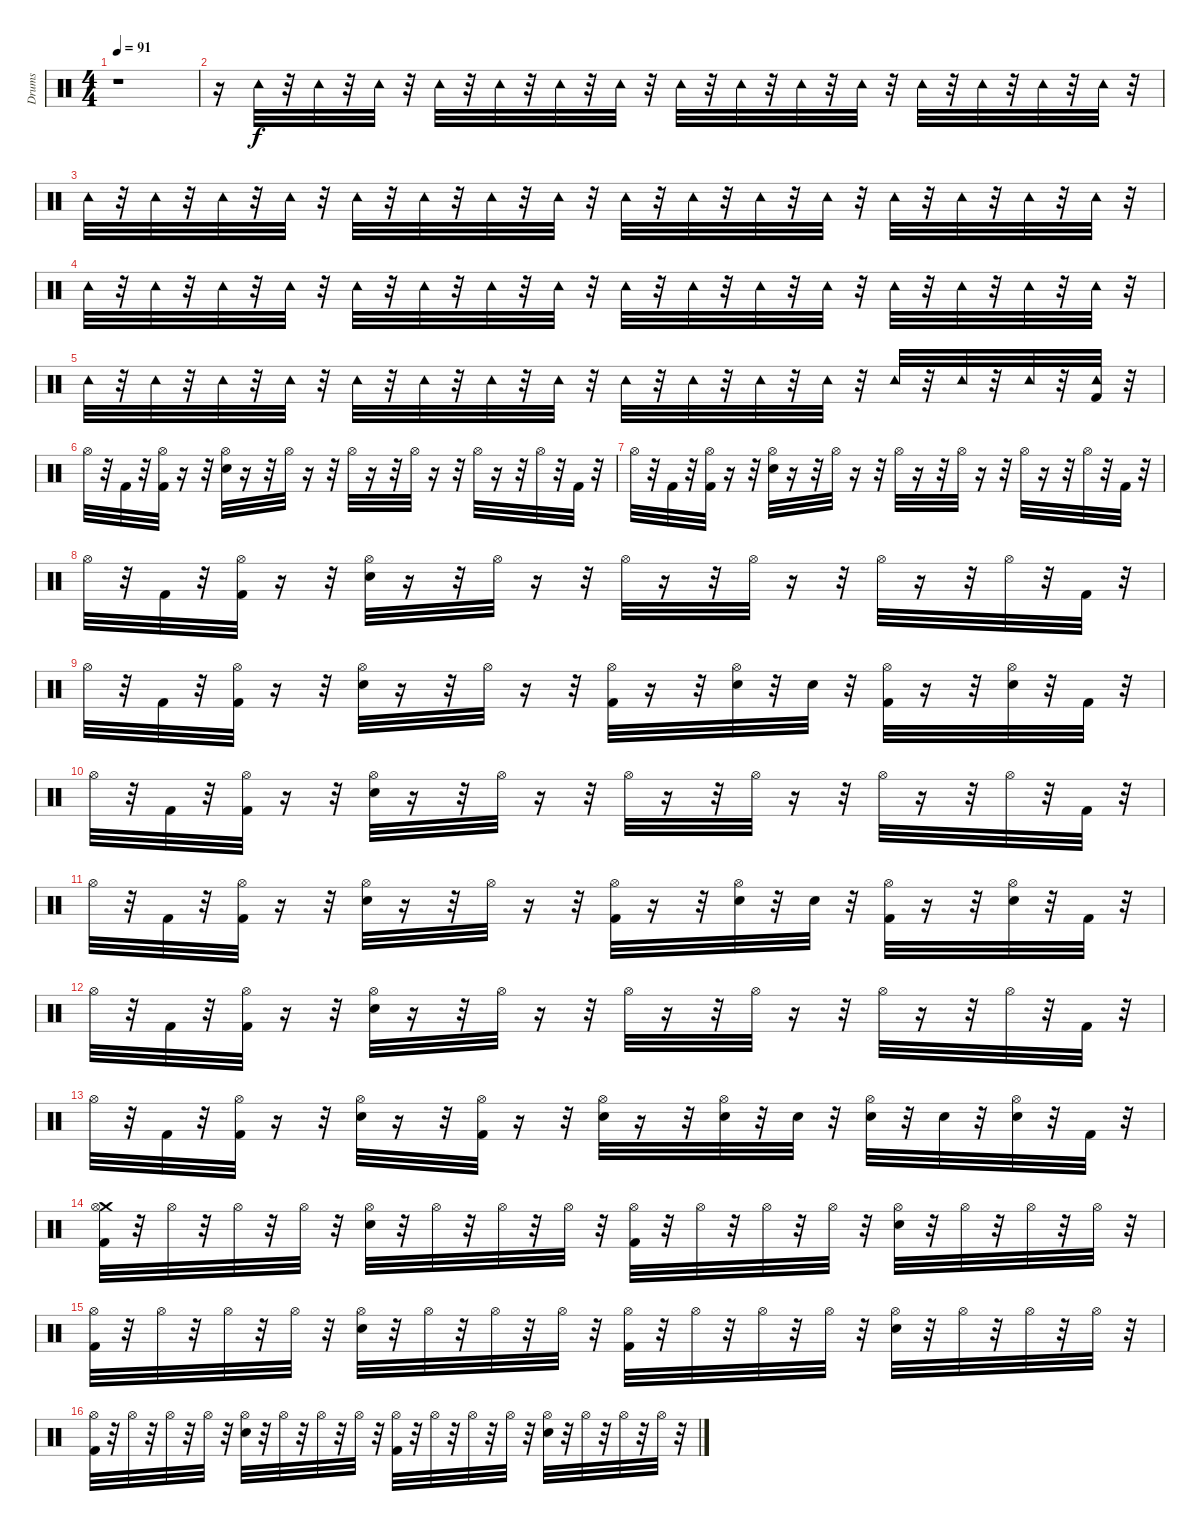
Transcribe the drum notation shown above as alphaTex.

\track ("Drums" "Drums") {instrument percussion}
\staff {score}
\articulation defaults
\ts (4 4)
\tempo 91
\clef neutral
\ks c
r.1{dy f volume 0} |
r.16{volume 16} "Tambourine (hit)".32 r.32 "Tambourine (hit)".32 r.32 "Tambourine (hit)".32 r.32 "Tambourine (hit)".32 r.32 "Tambourine (hit)".32 r.32 "Tambourine (hit)".32 r.32 "Tambourine (hit)".32 r.32 "Tambourine (hit)".32 r.32 "Tambourine (hit)".32 r.32 "Tambourine (hit)".32 r.32 "Tambourine (hit)".32 r.32 "Tambourine (hit)".32 r.32 "Tambourine (hit)".32 r.32 "Tambourine (hit)".32 r.32 "Tambourine (hit)".32 r.32 |
"Tambourine (hit)".32 r.32 "Tambourine (hit)".32 r.32 "Tambourine (hit)".32 r.32 "Tambourine (hit)".32 r.32 "Tambourine (hit)".32 r.32 "Tambourine (hit)".32 r.32 "Tambourine (hit)".32 r.32 "Tambourine (hit)".32 r.32 "Tambourine (hit)".32 r.32 "Tambourine (hit)".32 r.32 "Tambourine (hit)".32 r.32 "Tambourine (hit)".32 r.32 "Tambourine (hit)".32 r.32 "Tambourine (hit)".32 r.32 "Tambourine (hit)".32 r.32 "Tambourine (hit)".32 r.32 |
"Tambourine (hit)".32 r.32 "Tambourine (hit)".32 r.32 "Tambourine (hit)".32 r.32 "Tambourine (hit)".32 r.32 "Tambourine (hit)".32 r.32 "Tambourine (hit)".32 r.32 "Tambourine (hit)".32 r.32 "Tambourine (hit)".32 r.32 "Tambourine (hit)".32 r.32 "Tambourine (hit)".32 r.32 "Tambourine (hit)".32 r.32 "Tambourine (hit)".32 r.32 "Tambourine (hit)".32 r.32 "Tambourine (hit)".32 r.32 "Tambourine (hit)".32 r.32 "Tambourine (hit)".32 r.32 |
"Tambourine (hit)".32 r.32 "Tambourine (hit)".32 r.32 "Tambourine (hit)".32 r.32 "Tambourine (hit)".32 r.32 "Tambourine (hit)".32 r.32 "Tambourine (hit)".32 r.32 "Tambourine (hit)".32 r.32 "Tambourine (hit)".32 r.32 "Tambourine (hit)".32 r.32 "Tambourine (hit)".32 r.32 "Tambourine (hit)".32 r.32 "Tambourine (hit)".32 r.32 "Tambourine (hit)".32 r.32 "Tambourine (hit)".32 r.32 "Tambourine (hit)".32 r.32 ("Kick (hit) 2" "Tambourine (hit)").32 r.32 |
"Hi-Hat (open)".32 r.32 "Kick (hit) 2".32 r.32 ("Hi-Hat (open)" "Kick (hit) 2").32 r.16 r.32 ("Hi-Hat (open)" "Snare (hit) 2").32 r.16 r.32 "Hi-Hat (open)".32 r.16 r.32 "Hi-Hat (open)".32 r.16 r.32 "Hi-Hat (open)".32 r.16 r.32 "Hi-Hat (open)".32 r.16 r.32 "Hi-Hat (open)".32 r.32 "Kick (hit) 2".32 r.32 |
"Hi-Hat (open)".32 r.32 "Kick (hit) 2".32 r.32 ("Hi-Hat (open)" "Kick (hit) 2").32 r.16 r.32 ("Hi-Hat (open)" "Snare (hit) 2").32 r.16 r.32 "Hi-Hat (open)".32 r.16 r.32 "Hi-Hat (open)".32 r.16 r.32 "Hi-Hat (open)".32 r.16 r.32 "Hi-Hat (open)".32 r.16 r.32 "Hi-Hat (open)".32 r.32 "Kick (hit) 2".32 r.32 |
"Hi-Hat (open)".32 r.32 "Kick (hit) 2".32 r.32 ("Hi-Hat (open)" "Kick (hit) 2").32 r.16 r.32 ("Hi-Hat (open)" "Snare (hit) 2").32 r.16 r.32 "Hi-Hat (open)".32 r.16 r.32 "Hi-Hat (open)".32 r.16 r.32 "Hi-Hat (open)".32 r.16 r.32 "Hi-Hat (open)".32 r.16 r.32 "Hi-Hat (open)".32 r.32 "Kick (hit) 2".32 r.32 |
"Hi-Hat (open)".32 r.32 "Kick (hit) 2".32 r.32 ("Hi-Hat (open)" "Kick (hit) 2").32 r.16 r.32 ("Hi-Hat (open)" "Snare (hit) 2").32 r.16 r.32 "Hi-Hat (open)".32 r.16 r.32 ("Kick (hit) 2" "Hi-Hat (open)").32 r.16 r.32 ("Snare (hit) 2" "Hi-Hat (open)").32 r.32 "Snare (hit) 2".32 r.32 ("Kick (hit) 2" "Hi-Hat (open)").32 r.16 r.32 ("Snare (hit) 2" "Hi-Hat (open)").32 r.32 "Kick (hit) 2".32 r.32 |
"Hi-Hat (open)".32 r.32 "Kick (hit) 2".32 r.32 ("Hi-Hat (open)" "Kick (hit) 2").32 r.16 r.32 ("Hi-Hat (open)" "Snare (hit) 2").32 r.16 r.32 "Hi-Hat (open)".32 r.16 r.32 "Hi-Hat (open)".32 r.16 r.32 "Hi-Hat (open)".32 r.16 r.32 "Hi-Hat (open)".32 r.16 r.32 "Hi-Hat (open)".32 r.32 "Kick (hit) 2".32 r.32 |
"Hi-Hat (open)".32 r.32 "Kick (hit) 2".32 r.32 ("Hi-Hat (open)" "Kick (hit) 2").32 r.16 r.32 ("Hi-Hat (open)" "Snare (hit) 2").32 r.16 r.32 "Hi-Hat (open)".32 r.16 r.32 ("Kick (hit) 2" "Hi-Hat (open)").32 r.16 r.32 ("Snare (hit) 2" "Hi-Hat (open)").32 r.32 "Snare (hit) 2".32 r.32 ("Kick (hit) 2" "Hi-Hat (open)").32 r.16 r.32 ("Snare (hit) 2" "Hi-Hat (open)").32 r.32 "Kick (hit) 2".32 r.32 |
"Hi-Hat (open)".32 r.32 "Kick (hit) 2".32 r.32 ("Hi-Hat (open)" "Kick (hit) 2").32 r.16 r.32 ("Hi-Hat (open)" "Snare (hit) 2").32 r.16 r.32 "Hi-Hat (open)".32 r.16 r.32 "Hi-Hat (open)".32 r.16 r.32 "Hi-Hat (open)".32 r.16 r.32 "Hi-Hat (open)".32 r.16 r.32 "Hi-Hat (open)".32 r.32 "Kick (hit) 2".32 r.32 |
"Hi-Hat (open)".32 r.32 "Kick (hit) 2".32 r.32 ("Hi-Hat (open)" "Kick (hit) 2").32 r.16 r.32 ("Hi-Hat (open)" "Snare (hit) 2").32 r.16 r.32 ("Kick (hit) 2" "Hi-Hat (open)").32 r.16 r.32 ("Snare (hit) 2" "Hi-Hat (open)").32 r.16 r.32 ("Snare (hit) 2" "Hi-Hat (open)").32 r.32 "Snare (hit) 2".32 r.32 ("Snare (hit) 2" "Hi-Hat (open)").32 r.32 "Snare (hit) 2".32 r.32 ("Snare (hit) 2" "Hi-Hat (open)").32 r.32 "Kick (hit) 2".32 r.32 |
("Crash medium (hit)" "Kick (hit) 2" "Hi-Hat (open)").32 r.32 "Hi-Hat (open)".32 r.32 "Hi-Hat (open)".32 r.32 "Hi-Hat (open)".32 r.32 ("Snare (hit) 2" "Hi-Hat (open)").32 r.32 "Hi-Hat (open)".32 r.32 "Hi-Hat (open)".32 r.32 "Hi-Hat (open)".32 r.32 ("Kick (hit) 2" "Hi-Hat (open)").32 r.32 "Hi-Hat (open)".32 r.32 "Hi-Hat (open)".32 r.32 "Hi-Hat (open)".32 r.32 ("Snare (hit) 2" "Hi-Hat (open)").32 r.32 "Hi-Hat (open)".32 r.32 "Hi-Hat (open)".32 r.32 "Hi-Hat (open)".32 r.32 |
("Kick (hit) 2" "Hi-Hat (open)").32 r.32 "Hi-Hat (open)".32 r.32 "Hi-Hat (open)".32 r.32 "Hi-Hat (open)".32 r.32 ("Snare (hit) 2" "Hi-Hat (open)").32 r.32 "Hi-Hat (open)".32 r.32 "Hi-Hat (open)".32 r.32 "Hi-Hat (open)".32 r.32 ("Kick (hit) 2" "Hi-Hat (open)").32 r.32 "Hi-Hat (open)".32 r.32 "Hi-Hat (open)".32 r.32 "Hi-Hat (open)".32 r.32 ("Snare (hit) 2" "Hi-Hat (open)").32 r.32 "Hi-Hat (open)".32 r.32 "Hi-Hat (open)".32 r.32 "Hi-Hat (open)".32 r.32 |
("Kick (hit) 2" "Hi-Hat (open)").32 r.32 "Hi-Hat (open)".32 r.32 "Hi-Hat (open)".32 r.32 "Hi-Hat (open)".32 r.32 ("Snare (hit) 2" "Hi-Hat (open)").32 r.32 "Hi-Hat (open)".32 r.32 "Hi-Hat (open)".32 r.32 "Hi-Hat (open)".32 r.32 ("Kick (hit) 2" "Hi-Hat (open)").32 r.32 "Hi-Hat (open)".32 r.32 "Hi-Hat (open)".32 r.32 "Hi-Hat (open)".32 r.32 ("Snare (hit) 2" "Hi-Hat (open)").32 r.32 "Hi-Hat (open)".32 r.32 "Hi-Hat (open)".32 r.32 "Hi-Hat (open)".32 r.32
